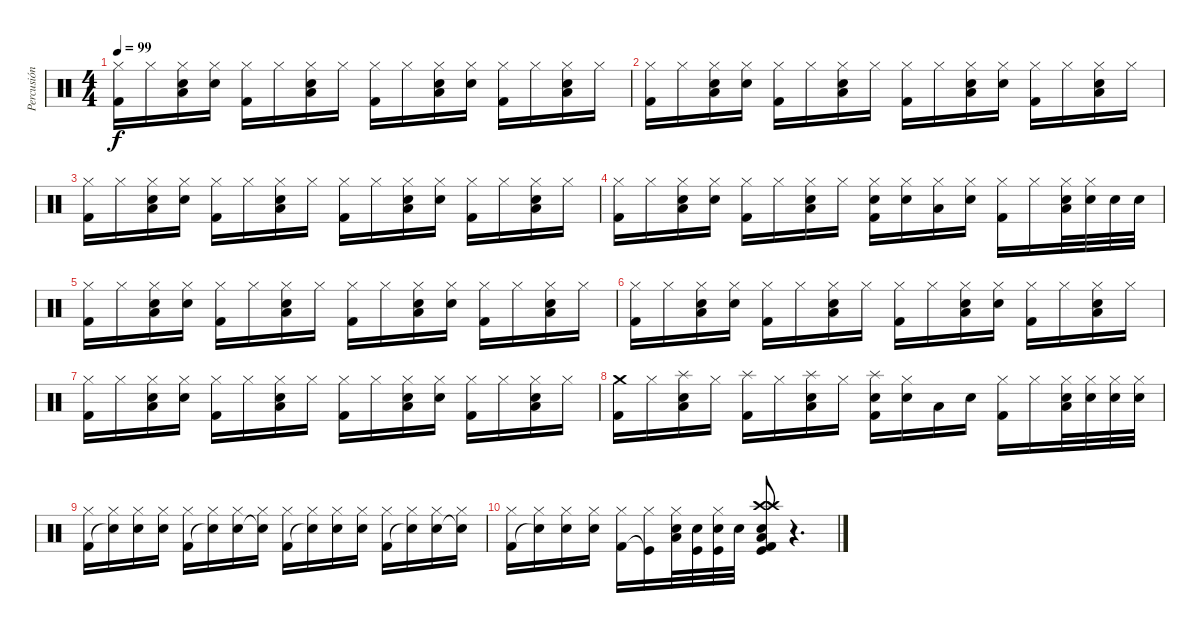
\track ("Percusión" "Percusión") {instrument percussion}
\staff {score}
\articulation defaults
\ts (4 4)
\tempo 99
\clef neutral
\ks c
("Hi-Hat (closed)" "Kick (hit) 2").16{dy f} "Hi-Hat (closed)".16 ("Hi-Hat (closed)" "Snare (hit) 2" "Low Tom (hit)").16 ("Hi-Hat (closed)" "Snare (hit) 2").16 ("Hi-Hat (closed)" "Kick (hit) 2").16 "Hi-Hat (closed)".16 ("Hi-Hat (closed)" "Snare (hit) 2" "Low Tom (hit)").16 "Hi-Hat (closed)".16 ("Hi-Hat (closed)" "Kick (hit) 2").16 "Hi-Hat (closed)".16 ("Hi-Hat (closed)" "Snare (hit) 2" "Low Tom (hit)").16 ("Hi-Hat (closed)" "Snare (hit) 2").16 ("Hi-Hat (closed)" "Kick (hit) 2").16 "Hi-Hat (closed)".16 ("Hi-Hat (closed)" "Snare (hit) 2" "Low Tom (hit)").16 "Hi-Hat (closed)".16 |
("Hi-Hat (closed)" "Kick (hit) 2").16 "Hi-Hat (closed)".16 ("Hi-Hat (closed)" "Snare (hit) 2" "Low Tom (hit)").16 ("Hi-Hat (closed)" "Snare (hit) 2").16 ("Hi-Hat (closed)" "Kick (hit) 2").16 "Hi-Hat (closed)".16 ("Hi-Hat (closed)" "Snare (hit) 2" "Low Tom (hit)").16 "Hi-Hat (closed)".16 ("Hi-Hat (closed)" "Kick (hit) 2").16 "Hi-Hat (closed)".16 ("Hi-Hat (closed)" "Snare (hit) 2" "Low Tom (hit)").16 ("Hi-Hat (closed)" "Snare (hit) 2").16 ("Hi-Hat (closed)" "Kick (hit) 2").16 "Hi-Hat (closed)".16 ("Hi-Hat (closed)" "Snare (hit) 2" "Low Tom (hit)").16 "Hi-Hat (closed)".16 |
("Hi-Hat (closed)" "Kick (hit) 2").16 "Hi-Hat (closed)".16 ("Hi-Hat (closed)" "Snare (hit) 2" "Low Tom (hit)").16 ("Hi-Hat (closed)" "Snare (hit) 2").16 ("Hi-Hat (closed)" "Kick (hit) 2").16 "Hi-Hat (closed)".16 ("Hi-Hat (closed)" "Snare (hit) 2" "Low Tom (hit)").16 "Hi-Hat (closed)".16 ("Hi-Hat (closed)" "Kick (hit) 2").16 "Hi-Hat (closed)".16 ("Hi-Hat (closed)" "Snare (hit) 2" "Low Tom (hit)").16 ("Hi-Hat (closed)" "Snare (hit) 2").16 ("Hi-Hat (closed)" "Kick (hit) 2").16 "Hi-Hat (closed)".16 ("Hi-Hat (closed)" "Snare (hit) 2" "Low Tom (hit)").16 "Hi-Hat (closed)".16 |
("Hi-Hat (closed)" "Kick (hit) 2").16 "Hi-Hat (closed)".16 ("Hi-Hat (closed)" "Snare (hit) 2" "Low Tom (hit)").16 ("Hi-Hat (closed)" "Snare (hit) 2").16 ("Hi-Hat (closed)" "Kick (hit) 2").16 "Hi-Hat (closed)".16 ("Hi-Hat (closed)" "Snare (hit) 2" "Low Tom (hit)").16 "Hi-Hat (closed)".16 ("Hi-Hat (closed)" "Snare (hit) 2" "Kick (hit) 2").16 ("Hi-Hat (closed)" "Snare (hit) 2").16 ("Hi-Hat (closed)" "Low Tom (hit)").16 ("Hi-Hat (closed)" "Snare (hit) 2").16 ("Hi-Hat (closed)" "Kick (hit) 2").16 "Hi-Hat (closed)".16 ("Hi-Hat (closed)" "Snare (hit) 2" "Low Tom (hit)").32 ("Hi-Hat (closed)" "Snare (hit) 2").32 "Snare (hit) 2".32 "Snare (hit) 2".32 |
("Hi-Hat (closed)" "Kick (hit) 2").16 "Hi-Hat (closed)".16 ("Hi-Hat (closed)" "Snare (hit) 2" "Low Tom (hit)").16 ("Hi-Hat (closed)" "Snare (hit) 2").16 ("Hi-Hat (closed)" "Kick (hit) 2").16 "Hi-Hat (closed)".16 ("Hi-Hat (closed)" "Snare (hit) 2" "Low Tom (hit)").16 "Hi-Hat (closed)".16 ("Hi-Hat (closed)" "Kick (hit) 2").16 "Hi-Hat (closed)".16 ("Hi-Hat (closed)" "Snare (hit) 2" "Low Tom (hit)").16 ("Hi-Hat (closed)" "Snare (hit) 2").16 ("Hi-Hat (closed)" "Kick (hit) 2").16 "Hi-Hat (closed)".16 ("Hi-Hat (closed)" "Snare (hit) 2" "Low Tom (hit)").16 "Hi-Hat (closed)".16 |
("Hi-Hat (closed)" "Kick (hit) 2").16 "Hi-Hat (closed)".16 ("Hi-Hat (closed)" "Snare (hit) 2" "Low Tom (hit)").16 ("Hi-Hat (closed)" "Snare (hit) 2").16 ("Hi-Hat (closed)" "Kick (hit) 2").16 "Hi-Hat (closed)".16 ("Hi-Hat (closed)" "Snare (hit) 2" "Low Tom (hit)").16 "Hi-Hat (closed)".16 ("Hi-Hat (closed)" "Kick (hit) 2").16 "Hi-Hat (closed)".16 ("Hi-Hat (closed)" "Snare (hit) 2" "Low Tom (hit)").16 ("Hi-Hat (closed)" "Snare (hit) 2").16 ("Hi-Hat (closed)" "Kick (hit) 2").16 "Hi-Hat (closed)".16 ("Hi-Hat (closed)" "Snare (hit) 2" "Low Tom (hit)").16 "Hi-Hat (closed)".16 |
("Hi-Hat (closed)" "Kick (hit) 2").16 "Hi-Hat (closed)".16 ("Hi-Hat (closed)" "Snare (hit) 2" "Low Tom (hit)").16 ("Hi-Hat (closed)" "Snare (hit) 2").16 ("Hi-Hat (closed)" "Kick (hit) 2").16 "Hi-Hat (closed)".16 ("Hi-Hat (closed)" "Snare (hit) 2" "Low Tom (hit)").16 "Hi-Hat (closed)".16 ("Hi-Hat (closed)" "Kick (hit) 2").16 "Hi-Hat (closed)".16 ("Hi-Hat (closed)" "Snare (hit) 2" "Low Tom (hit)").16 ("Hi-Hat (closed)" "Snare (hit) 2").16 ("Hi-Hat (closed)" "Kick (hit) 2").16 "Hi-Hat (closed)".16 ("Hi-Hat (closed)" "Snare (hit) 2" "Low Tom (hit)").16 "Hi-Hat (closed)".16 |
("Crash medium (hit)" "Kick (hit) 2").16 "Hi-Hat (closed)".16 ("Splash (hit)" "Snare (hit) 2" "Low Tom (hit)").16 "Hi-Hat (closed)".16 ("Splash (hit)" "Kick (hit) 2").16 "Hi-Hat (closed)".16 ("Splash (hit)" "Snare (hit) 2" "Low Tom (hit)").16 "Hi-Hat (closed)".16 ("Splash (hit)" "Snare (hit) 2" "Kick (hit) 2").16 ("Hi-Hat (closed)" "Snare (hit) 2").16 "Low Tom (hit)".16 "Snare (hit) 2".16 ("Hi-Hat (closed)" "Kick (hit) 2").16 "Hi-Hat (closed)".16 ("Hi-Hat (closed)" "Snare (hit) 2" "Low Tom (hit)").32 ("Hi-Hat (closed)" "Snare (hit) 2").32 ("Hi-Hat (closed)" "Snare (hit) 2").32 ("Hi-Hat (closed)" "Snare (hit) 2").32 |
("Hi-Hat (closed)" "Kick (hit) 2").16 ("Hi-Hat (closed)" "Snare (hit)"{t}).16 ("Hi-Hat (closed)" "Snare (hit) 2").16 ("Hi-Hat (closed)" "Snare (hit) 2").16 ("Hi-Hat (closed)" "Kick (hit) 2").16 ("Hi-Hat (closed)" "Snare (hit)"{t}).16 ("Hi-Hat (closed)" "Snare (hit) 2").16 ("Hi-Hat (closed)" "Snare (hit)"{t}).16 ("Hi-Hat (closed)" "Kick (hit) 2").16 ("Hi-Hat (closed)" "Snare (hit)"{t}).16 ("Hi-Hat (closed)" "Snare (hit) 2").16 ("Hi-Hat (closed)" "Snare (hit) 2").16 ("Hi-Hat (closed)" "Kick (hit) 2").16 ("Hi-Hat (closed)" "Snare (hit)"{t}).16 ("Hi-Hat (closed)" "Snare (hit) 2").16 ("Hi-Hat (closed)" "Snare (hit)"{t}).16 |
("Hi-Hat (closed)" "Kick (hit) 2").16 ("Hi-Hat (closed)" "Snare (hit)"{t}).16 ("Hi-Hat (closed)" "Snare (hit) 2").16 ("Hi-Hat (closed)" "Snare (hit) 2").16 ("Hi-Hat (closed)" "Kick (hit) 2").16 ("Hi-Hat (closed)" "Kick (hit)"{t}).16 ("Hi-Hat (closed)" "Snare (hit) 2" "Low Tom (hit)").32 ("Snare (hit) 2" "Kick (hit)").32 ("Hi-Hat (closed)" "Snare (hit) 2" "Kick (hit)").32 "Snare (hit) 2".32 ("Crash high (hit)" "Crash high (hit)" "Kick (hit)" "Kick (hit) 2" "Snare (hit) 2" "Low Floor Tom (hit)").8 r.4{d}
